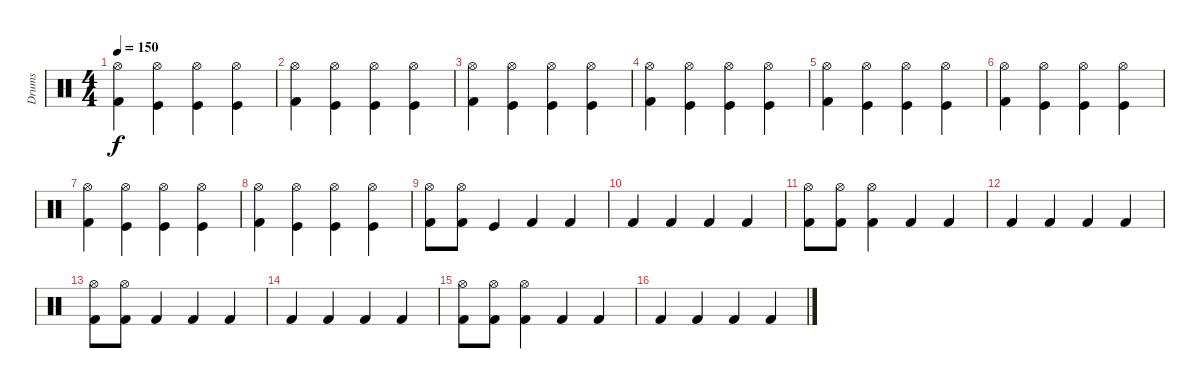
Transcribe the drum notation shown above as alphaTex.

\track ("Drums" "Drums") {instrument percussion}
\staff {score}
\articulation defaults
\ts (4 4)
\tempo 150
\clef neutral
\ks c
("Hi-Hat (open)" "Kick (hit) 2").4{dy f} ("Hi-Hat (open)" "Kick (hit)").4 ("Hi-Hat (open)" "Kick (hit)").4 ("Hi-Hat (open)" "Kick (hit)").4 |
("Hi-Hat (open)" "Kick (hit) 2").4 ("Hi-Hat (open)" "Kick (hit)").4 ("Hi-Hat (open)" "Kick (hit)").4 ("Hi-Hat (open)" "Kick (hit)").4 |
("Hi-Hat (open)" "Kick (hit) 2").4 ("Hi-Hat (open)" "Kick (hit)").4 ("Hi-Hat (open)" "Kick (hit)").4 ("Hi-Hat (open)" "Kick (hit)").4 |
("Hi-Hat (open)" "Kick (hit) 2").4 ("Hi-Hat (open)" "Kick (hit)").4 ("Hi-Hat (open)" "Kick (hit)").4 ("Hi-Hat (open)" "Kick (hit)").4 |
("Hi-Hat (open)" "Kick (hit) 2").4 ("Hi-Hat (open)" "Kick (hit)").4 ("Hi-Hat (open)" "Kick (hit)").4 ("Hi-Hat (open)" "Kick (hit)").4 |
("Hi-Hat (open)" "Kick (hit) 2").4 ("Hi-Hat (open)" "Kick (hit)").4 ("Hi-Hat (open)" "Kick (hit)").4 ("Hi-Hat (open)" "Kick (hit)").4 |
("Hi-Hat (open)" "Kick (hit) 2").4 ("Hi-Hat (open)" "Kick (hit)").4 ("Hi-Hat (open)" "Kick (hit)").4 ("Hi-Hat (open)" "Kick (hit)").4 |
("Hi-Hat (open)" "Kick (hit) 2").4 ("Hi-Hat (open)" "Kick (hit)").4 ("Hi-Hat (open)" "Kick (hit)").4 ("Hi-Hat (open)" "Kick (hit)").4 |
("Hi-Hat (open)" "Kick (hit) 2").8 ("Hi-Hat (open)" "Kick (hit) 2").8 "Kick (hit)".4 "Kick (hit) 2".4 "Kick (hit) 2".4 |
"Kick (hit) 2".4 "Kick (hit) 2".4 "Kick (hit) 2".4 "Kick (hit) 2".4 |
("Hi-Hat (open)" "Kick (hit) 2").8 ("Hi-Hat (open)" "Kick (hit) 2").8 ("Hi-Hat (open)" "Kick (hit) 2").4 "Kick (hit) 2".4 "Kick (hit) 2".4 |
"Kick (hit) 2".4 "Kick (hit) 2".4 "Kick (hit) 2".4 "Kick (hit) 2".4 |
("Hi-Hat (open)" "Kick (hit) 2").8 ("Hi-Hat (open)" "Kick (hit) 2").8 "Kick (hit) 2".4 "Kick (hit) 2".4 "Kick (hit) 2".4 |
"Kick (hit) 2".4 "Kick (hit) 2".4 "Kick (hit) 2".4 "Kick (hit) 2".4 |
("Hi-Hat (open)" "Kick (hit) 2").8 ("Hi-Hat (open)" "Kick (hit) 2").8 ("Hi-Hat (open)" "Kick (hit) 2").4 "Kick (hit) 2".4 "Kick (hit) 2".4 |
"Kick (hit) 2".4 "Kick (hit) 2".4 "Kick (hit) 2".4 "Kick (hit) 2".4
